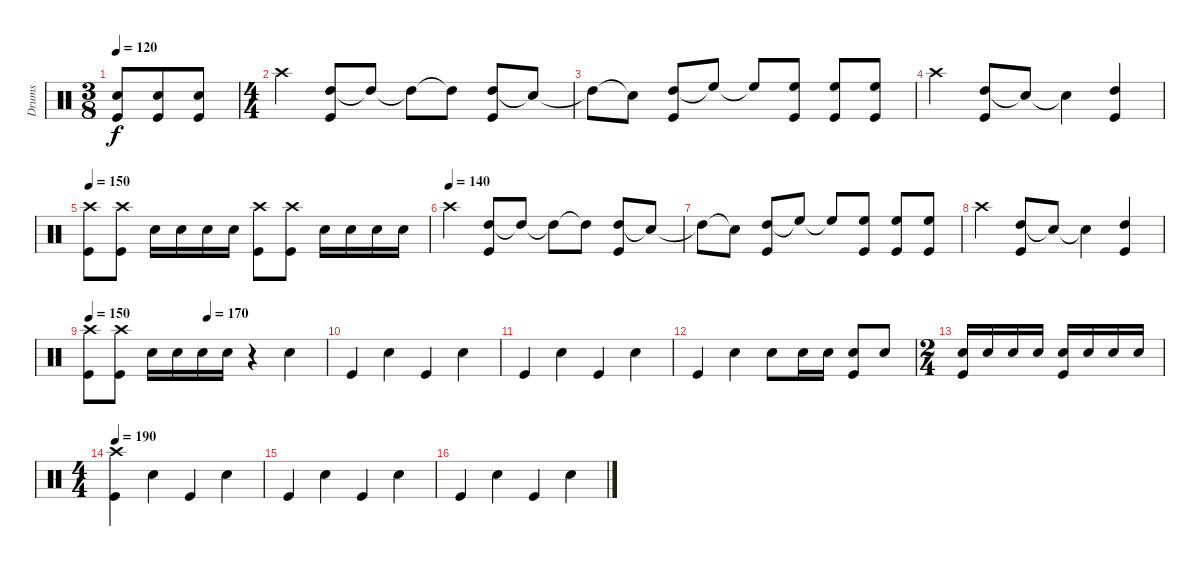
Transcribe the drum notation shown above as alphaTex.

\track ("Drums" "Drums") {instrument percussion}
\staff {score}
\articulation defaults
\ts (3 8)
\tempo 120
\tempo 140
\tempo 120
\clef neutral
\ks c
("Snare (hit) 2" "Kick (hit)").8{dy f} ("Snare (hit) 2" "Kick (hit)").8 ("Snare (hit) 2" "Kick (hit)").8 |
\ts (4 4)
"Crash high (hit)".4 ("High Tom (hit)" "Kick (hit)").8 "High Tom (hit)"{t}.8 "High Tom (hit)"{t}.8 "High Tom (hit)"{t}.8 ("High Tom (hit)" "Kick (hit)").8 "Snare (hit)"{t}.8 |
"High Tom (hit)"{t}.8 "Snare (hit)"{t}.8 ("High Tom (hit)" "Kick (hit)").8 "High Floor Tom (hit)"{t}.8 "High Floor Tom (hit)"{t}.8 ("High Floor Tom (hit)" "Kick (hit)").8 ("High Floor Tom (hit)" "Kick (hit)").8 ("High Floor Tom (hit)" "Kick (hit)").8 |
"Crash high (hit)".4 ("High Tom (hit)" "Kick (hit)").8 "Snare (hit)"{t}.8 "Snare (hit)"{t}.4 ("High Tom (hit)" "Kick (hit)").4 |
\tempo 150
("Crash high (hit)" "Kick (hit)").8 ("Crash high (hit)" "Kick (hit)").8 "Snare (hit) 2".16 "Snare (hit) 2".16 "Snare (hit) 2".16 "Snare (hit) 2".16 ("Crash high (hit)" "Kick (hit)").8 ("Crash high (hit)" "Kick (hit)").8 "Snare (hit) 2".16 "Snare (hit) 2".16 "Snare (hit) 2".16 "Snare (hit) 2".16 |
\tempo (140)
"Crash high (hit)".4 ("High Tom (hit)" "Kick (hit)").8 "High Tom (hit)"{t}.8 "High Tom (hit)"{t}.8 "High Tom (hit)"{t}.8 ("High Tom (hit)" "Kick (hit)").8 "Snare (hit)"{t}.8 |
"High Tom (hit)"{t}.8 "Snare (hit)"{t}.8 ("High Tom (hit)" "Kick (hit)").8 "High Floor Tom (hit)"{t}.8 "High Floor Tom (hit)"{t}.8 ("High Floor Tom (hit)" "Kick (hit)").8 ("High Floor Tom (hit)" "Kick (hit)").8 ("High Floor Tom (hit)" "Kick (hit)").8 |
"Crash high (hit)".4 ("High Tom (hit)" "Kick (hit)").8 "Snare (hit)"{t}.8 "Snare (hit)"{t}.4 ("High Tom (hit)" "Kick (hit)").4 |
\tempo 150
\tempo (170 0.5)
("Crash high (hit)" "Kick (hit)").8 ("Crash high (hit)" "Kick (hit)").8 "Snare (hit) 2".16 "Snare (hit) 2".16 "Snare (hit) 2".16 "Snare (hit) 2".16 r.4 "Snare (hit) 2".4 |
"Kick (hit)".4 "Snare (hit) 2".4 "Kick (hit)".4 "Snare (hit) 2".4 |
"Kick (hit)".4 "Snare (hit) 2".4 "Kick (hit)".4 "Snare (hit) 2".4 |
"Kick (hit)".4 "Snare (hit) 2".4 "Snare (hit) 2".8 "Snare (hit) 2".16 "Snare (hit) 2".16 ("Snare (hit) 2" "Kick (hit)").8 "Snare (hit) 2".8 |
\ts (2 4)
("Snare (hit) 2" "Kick (hit)").16 "Snare (hit) 2".16 "Snare (hit) 2".16 "Snare (hit) 2".16 ("Snare (hit) 2" "Kick (hit)").16 "Snare (hit) 2".16 "Snare (hit) 2".16 "Snare (hit) 2".16 |
\ts (4 4)
\tempo 190
("Crash high (hit)" "Kick (hit)").4 "Snare (hit) 2".4 "Kick (hit)".4 "Snare (hit) 2".4 |
"Kick (hit)".4 "Snare (hit) 2".4 "Kick (hit)".4 "Snare (hit) 2".4 |
"Kick (hit)".4 "Snare (hit) 2".4 "Kick (hit)".4 "Snare (hit) 2".4
